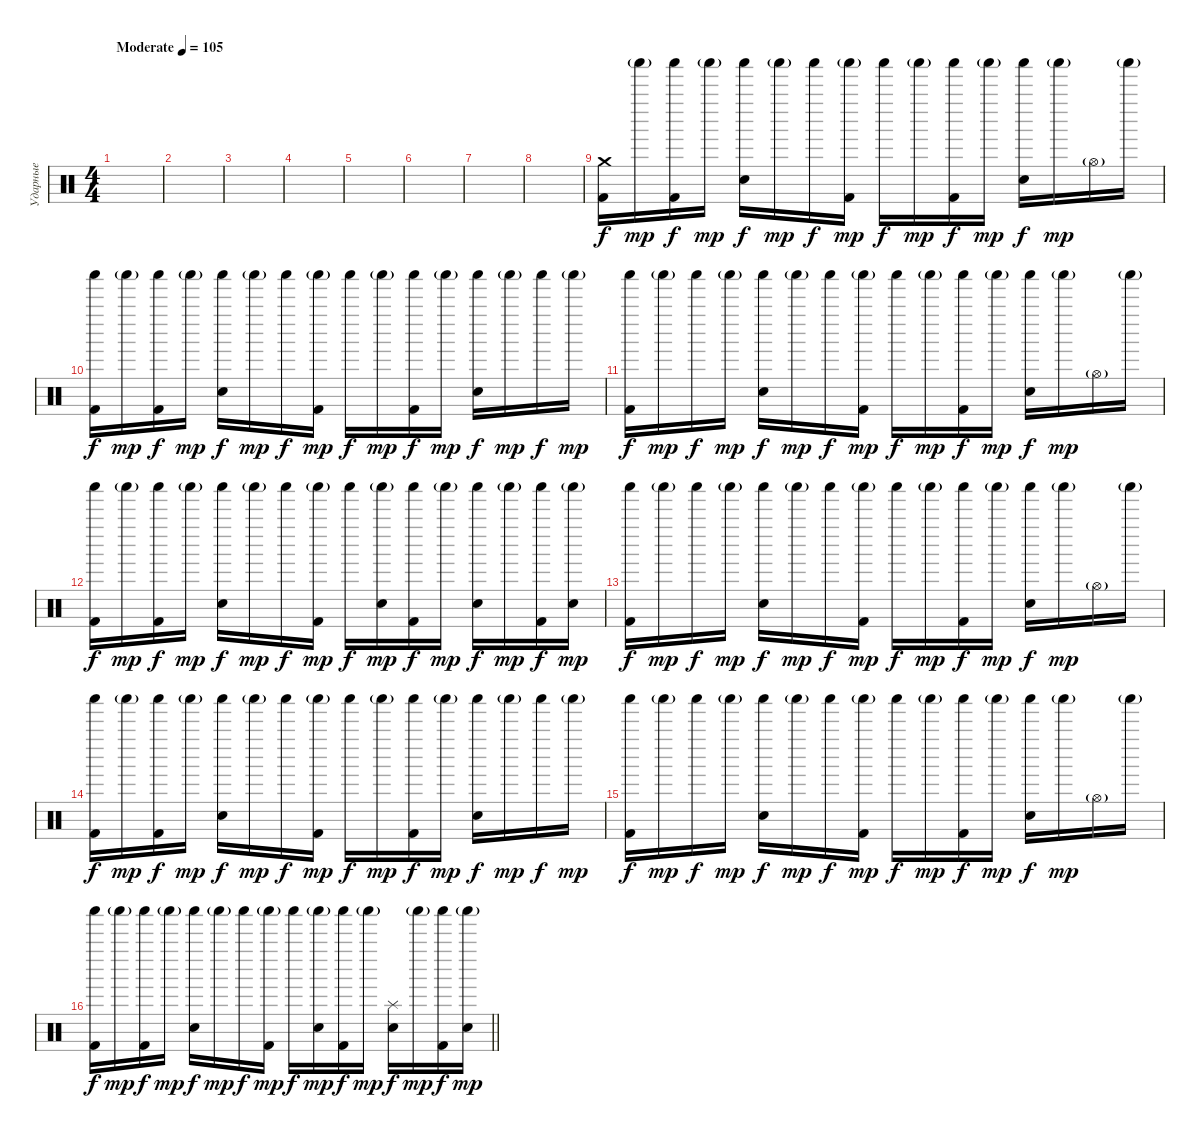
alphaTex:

\track ("Ударные" "Ударные") {instrument percussion}
\staff {score}
\articulation defaults
\ts (4 4)
\tempo (105 "Moderate")
\clef neutral
\ks c
|
|
|
|
|
|
|
|
("Crash medium (hit)" "Kick (hit) 2").16 "Shaker (hit)"{g}.16{dy mp} ("Shaker (hit)" "Kick (hit) 2").16{dy f} "Shaker (hit)"{g}.16{dy mp} ("Shaker (hit)" "Electric Snare (hit)").16{dy f} "Shaker (hit)"{g}.16{dy mp} "Shaker (hit)".16{dy f} ("Shaker (hit)"{g} "Kick (hit) 2").16{dy mp} "Shaker (hit)".16{dy f} "Shaker (hit)"{g}.16{dy mp} ("Shaker (hit)" "Kick (hit) 2").16{dy f} "Shaker (hit)"{g}.16{dy mp} ("Shaker (hit)" "Electric Snare (hit)").16{dy f} "Shaker (hit)"{g}.16{dy mp} "Hi-Hat (open)"{g}.16 "Shaker (hit)"{g}.16 |
("Shaker (hit)" "Kick (hit) 2").16{dy f} "Shaker (hit)"{g}.16{dy mp} ("Shaker (hit)" "Kick (hit) 2").16{dy f} "Shaker (hit)"{g}.16{dy mp} ("Shaker (hit)" "Electric Snare (hit)").16{dy f} "Shaker (hit)"{g}.16{dy mp} "Shaker (hit)".16{dy f} ("Shaker (hit)"{g} "Kick (hit) 2").16{dy mp} "Shaker (hit)".16{dy f} "Shaker (hit)"{g}.16{dy mp} ("Shaker (hit)" "Kick (hit) 2").16{dy f} "Shaker (hit)"{g}.16{dy mp} ("Shaker (hit)" "Electric Snare (hit)").16{dy f} "Shaker (hit)"{g}.16{dy mp} "Shaker (hit)".16{dy f} "Shaker (hit)"{g}.16{dy mp} |
("Shaker (hit)" "Kick (hit) 2").16{dy f} "Shaker (hit)"{g}.16{dy mp} "Shaker (hit)".16{dy f} "Shaker (hit)"{g}.16{dy mp} ("Shaker (hit)" "Electric Snare (hit)").16{dy f} "Shaker (hit)"{g}.16{dy mp} "Shaker (hit)".16{dy f} ("Shaker (hit)"{g} "Kick (hit) 2").16{dy mp} "Shaker (hit)".16{dy f} "Shaker (hit)"{g}.16{dy mp} ("Shaker (hit)" "Kick (hit) 2").16{dy f} "Shaker (hit)"{g}.16{dy mp} ("Shaker (hit)" "Electric Snare (hit)").16{dy f} "Shaker (hit)"{g}.16{dy mp} "Hi-Hat (open)"{g}.16 "Shaker (hit)"{g}.16 |
("Shaker (hit)" "Kick (hit) 2").16{dy f} "Shaker (hit)"{g}.16{dy mp} ("Shaker (hit)" "Kick (hit) 2").16{dy f} "Shaker (hit)"{g}.16{dy mp} ("Shaker (hit)" "Electric Snare (hit)").16{dy f} "Shaker (hit)"{g}.16{dy mp} "Shaker (hit)".16{dy f} ("Shaker (hit)"{g} "Kick (hit) 2").16{dy mp} "Shaker (hit)".16{dy f} ("Shaker (hit)"{g} "Electric Snare (hit)").16{dy mp} ("Shaker (hit)" "Kick (hit) 2").16{dy f} "Shaker (hit)"{g}.16{dy mp} ("Shaker (hit)" "Electric Snare (hit)").16{dy f} "Shaker (hit)"{g}.16{dy mp} ("Shaker (hit)" "Kick (hit) 2").16{dy f} ("Shaker (hit)"{g} "Electric Snare (hit)").16{dy mp} |
("Shaker (hit)" "Kick (hit) 2").16{dy f} "Shaker (hit)"{g}.16{dy mp} "Shaker (hit)".16{dy f} "Shaker (hit)"{g}.16{dy mp} ("Shaker (hit)" "Electric Snare (hit)").16{dy f} "Shaker (hit)"{g}.16{dy mp} "Shaker (hit)".16{dy f} ("Shaker (hit)"{g} "Kick (hit) 2").16{dy mp} "Shaker (hit)".16{dy f} "Shaker (hit)"{g}.16{dy mp} ("Shaker (hit)" "Kick (hit) 2").16{dy f} "Shaker (hit)"{g}.16{dy mp} ("Shaker (hit)" "Electric Snare (hit)").16{dy f} "Shaker (hit)"{g}.16{dy mp} "Hi-Hat (open)"{g}.16 "Shaker (hit)"{g}.16 |
("Shaker (hit)" "Kick (hit) 2").16{dy f} "Shaker (hit)"{g}.16{dy mp} ("Shaker (hit)" "Kick (hit) 2").16{dy f} "Shaker (hit)"{g}.16{dy mp} ("Shaker (hit)" "Electric Snare (hit)").16{dy f} "Shaker (hit)"{g}.16{dy mp} "Shaker (hit)".16{dy f} ("Shaker (hit)"{g} "Kick (hit) 2").16{dy mp} "Shaker (hit)".16{dy f} "Shaker (hit)"{g}.16{dy mp} ("Shaker (hit)" "Kick (hit) 2").16{dy f} "Shaker (hit)"{g}.16{dy mp} ("Shaker (hit)" "Electric Snare (hit)").16{dy f} "Shaker (hit)"{g}.16{dy mp} "Shaker (hit)".16{dy f} "Shaker (hit)"{g}.16{dy mp} |
("Shaker (hit)" "Kick (hit) 2").16{dy f} "Shaker (hit)"{g}.16{dy mp} "Shaker (hit)".16{dy f} "Shaker (hit)"{g}.16{dy mp} ("Shaker (hit)" "Electric Snare (hit)").16{dy f} "Shaker (hit)"{g}.16{dy mp} "Shaker (hit)".16{dy f} ("Shaker (hit)"{g} "Kick (hit) 2").16{dy mp} "Shaker (hit)".16{dy f} "Shaker (hit)"{g}.16{dy mp} ("Shaker (hit)" "Kick (hit) 2").16{dy f} "Shaker (hit)"{g}.16{dy mp} ("Shaker (hit)" "Electric Snare (hit)").16{dy f} "Shaker (hit)"{g}.16{dy mp} "Hi-Hat (open)"{g}.16 "Shaker (hit)"{g}.16 |
\barLineRight lightlight
("Shaker (hit)" "Kick (hit) 2").16{dy f} "Shaker (hit)"{g}.16{dy mp} ("Shaker (hit)" "Kick (hit) 2").16{dy f} "Shaker (hit)"{g}.16{dy mp} ("Shaker (hit)" "Electric Snare (hit)").16{dy f} "Shaker (hit)"{g}.16{dy mp} "Shaker (hit)".16{dy f} ("Shaker (hit)"{g} "Kick (hit) 2").16{dy mp} "Shaker (hit)".16{dy f} ("Shaker (hit)"{g} "Electric Snare (hit)").16{dy mp} ("Shaker (hit)" "Kick (hit) 2").16{dy f} "Shaker (hit)"{g}.16{dy mp} ("Splash (hit)" "Electric Snare (hit)").16{dy f} "Shaker (hit)"{g}.16{dy mp} ("Shaker (hit)" "Kick (hit) 2").16{dy f} ("Shaker (hit)"{g} "Electric Snare (hit)").16{dy mp}
